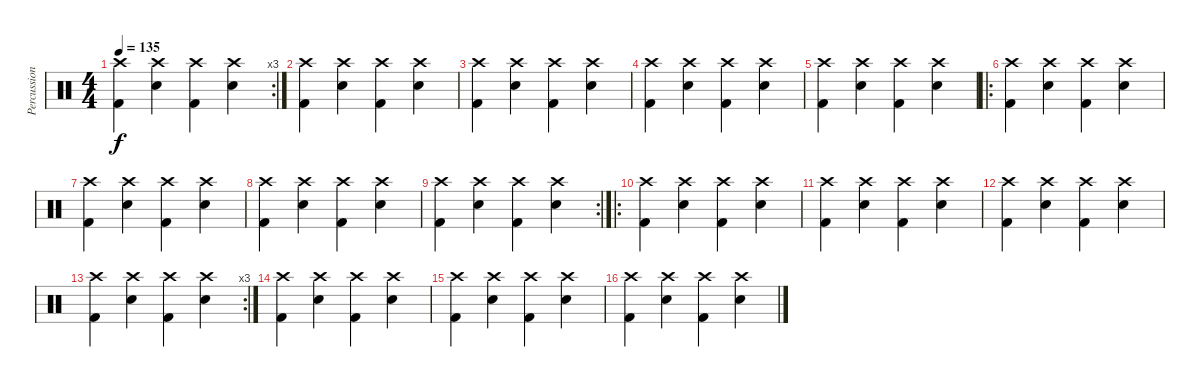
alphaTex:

\track ("Percussion" "Percussion") {instrument percussion}
\staff {score}
\articulation defaults
\rc 3
\ts (4 4)
\tempo 135
\clef neutral
\ks c
("Kick (hit) 2" "Crash high (hit)").4{dy f} ("Electric Snare (hit)" "Crash high (hit)").4 ("Kick (hit) 2" "Crash high (hit)").4 ("Electric Snare (hit)" "Crash high (hit)").4 |
("Kick (hit) 2" "Crash high (hit)").4 ("Electric Snare (hit)" "Crash high (hit)").4 ("Kick (hit) 2" "Crash high (hit)").4 ("Electric Snare (hit)" "Crash high (hit)").4 |
("Kick (hit) 2" "Crash high (hit)").4 ("Electric Snare (hit)" "Crash high (hit)").4 ("Kick (hit) 2" "Crash high (hit)").4 ("Electric Snare (hit)" "Crash high (hit)").4 |
("Kick (hit) 2" "Crash high (hit)").4 ("Electric Snare (hit)" "Crash high (hit)").4 ("Kick (hit) 2" "Crash high (hit)").4 ("Electric Snare (hit)" "Crash high (hit)").4 |
("Kick (hit) 2" "Crash high (hit)").4 ("Electric Snare (hit)" "Crash high (hit)").4 ("Kick (hit) 2" "Crash high (hit)").4 ("Electric Snare (hit)" "Crash high (hit)").4 |
\ro
("Kick (hit) 2" "Crash high (hit)").4 ("Electric Snare (hit)" "Crash high (hit)").4 ("Kick (hit) 2" "Crash high (hit)").4 ("Electric Snare (hit)" "Crash high (hit)").4 |
("Kick (hit) 2" "Crash high (hit)").4 ("Electric Snare (hit)" "Crash high (hit)").4 ("Kick (hit) 2" "Crash high (hit)").4 ("Electric Snare (hit)" "Crash high (hit)").4 |
("Kick (hit) 2" "Crash high (hit)").4 ("Electric Snare (hit)" "Crash high (hit)").4 ("Kick (hit) 2" "Crash high (hit)").4 ("Electric Snare (hit)" "Crash high (hit)").4 |
\rc 2
("Kick (hit) 2" "Crash high (hit)").4 ("Electric Snare (hit)" "Crash high (hit)").4 ("Kick (hit) 2" "Crash high (hit)").4 ("Electric Snare (hit)" "Crash high (hit)").4 |
\ro
("Kick (hit) 2" "Crash high (hit)").4 ("Electric Snare (hit)" "Crash high (hit)").4 ("Kick (hit) 2" "Crash high (hit)").4 ("Electric Snare (hit)" "Crash high (hit)").4 |
("Kick (hit) 2" "Crash high (hit)").4 ("Electric Snare (hit)" "Crash high (hit)").4 ("Kick (hit) 2" "Crash high (hit)").4 ("Electric Snare (hit)" "Crash high (hit)").4 |
("Kick (hit) 2" "Crash high (hit)").4 ("Electric Snare (hit)" "Crash high (hit)").4 ("Kick (hit) 2" "Crash high (hit)").4 ("Electric Snare (hit)" "Crash high (hit)").4 |
\rc 3
("Kick (hit) 2" "Crash high (hit)").4 ("Electric Snare (hit)" "Crash high (hit)").4 ("Kick (hit) 2" "Crash high (hit)").4 ("Electric Snare (hit)" "Crash high (hit)").4 |
("Kick (hit) 2" "Crash high (hit)").4 ("Electric Snare (hit)" "Crash high (hit)").4 ("Kick (hit) 2" "Crash high (hit)").4 ("Electric Snare (hit)" "Crash high (hit)").4 |
("Kick (hit) 2" "Crash high (hit)").4 ("Electric Snare (hit)" "Crash high (hit)").4 ("Kick (hit) 2" "Crash high (hit)").4 ("Electric Snare (hit)" "Crash high (hit)").4 |
("Kick (hit) 2" "Crash high (hit)").4 ("Electric Snare (hit)" "Crash high (hit)").4 ("Kick (hit) 2" "Crash high (hit)").4 ("Electric Snare (hit)" "Crash high (hit)").4
